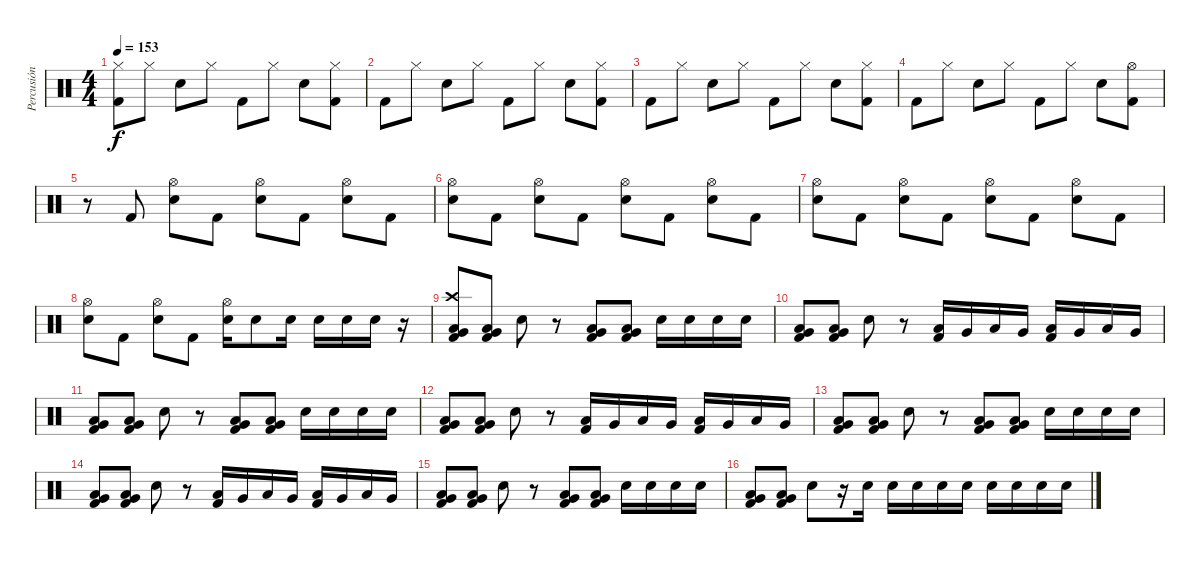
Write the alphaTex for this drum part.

\track ("Percusión" "Percusión") {instrument percussion}
\staff {score}
\articulation defaults
\ts (4 4)
\tempo 153
\clef neutral
\ks c
("Hi-Hat (closed)" "Kick (hit) 2").8{dy f} "Hi-Hat (closed)".8 "Electric Snare (hit)".8 "Hi-Hat (closed)".8 "Kick (hit) 2".8 "Hi-Hat (closed)".8 "Electric Snare (hit)".8 ("Hi-Hat (closed)" "Kick (hit) 2").8 |
"Kick (hit) 2".8 "Hi-Hat (closed)".8 "Electric Snare (hit)".8 "Hi-Hat (closed)".8 "Kick (hit) 2".8 "Hi-Hat (closed)".8 "Electric Snare (hit)".8 ("Hi-Hat (closed)" "Kick (hit) 2").8 |
"Kick (hit) 2".8 "Hi-Hat (closed)".8 "Electric Snare (hit)".8 "Hi-Hat (closed)".8 "Kick (hit) 2".8 "Hi-Hat (closed)".8 "Electric Snare (hit)".8 ("Hi-Hat (closed)" "Kick (hit) 2").8 |
"Kick (hit) 2".8 "Hi-Hat (closed)".8 "Electric Snare (hit)".8 "Hi-Hat (closed)".8 "Kick (hit) 2".8 "Hi-Hat (closed)".8 "Electric Snare (hit)".8 ("Hi-Hat (open)" "Kick (hit) 2").8 |
r.8 "Kick (hit) 2".8 ("Hi-Hat (open)" "Electric Snare (hit)").8 "Kick (hit) 2".8 ("Hi-Hat (open)" "Electric Snare (hit)").8 "Kick (hit) 2".8 ("Hi-Hat (open)" "Electric Snare (hit)").8 "Kick (hit) 2".8 |
("Hi-Hat (open)" "Electric Snare (hit)").8 "Kick (hit) 2".8 ("Hi-Hat (open)" "Electric Snare (hit)").8 "Kick (hit) 2".8 ("Hi-Hat (open)" "Electric Snare (hit)").8 "Kick (hit) 2".8 ("Hi-Hat (open)" "Electric Snare (hit)").8 "Kick (hit) 2".8 |
("Hi-Hat (open)" "Electric Snare (hit)").8 "Kick (hit) 2".8 ("Hi-Hat (open)" "Electric Snare (hit)").8 "Kick (hit) 2".8 ("Hi-Hat (open)" "Electric Snare (hit)").8 "Kick (hit) 2".8 ("Hi-Hat (open)" "Electric Snare (hit)").8 "Kick (hit) 2".8 |
("Hi-Hat (open)" "Electric Snare (hit)").8 "Kick (hit) 2".8 ("Hi-Hat (open)" "Electric Snare (hit)").8 "Kick (hit) 2".8 ("Hi-Hat (open)" "Electric Snare (hit)").16 "Electric Snare (hit)".8 "Electric Snare (hit)".16 "Electric Snare (hit)".16 "Electric Snare (hit)".16 "Electric Snare (hit)".16 r.16 |
("Crash high (hit)" "Kick (hit) 2" "Low Floor Tom (hit)" "Very Low Tom (hit)").8 ("Kick (hit) 2" "Low Floor Tom (hit)" "Very Low Tom (hit)").8 "Electric Snare (hit)".8 r.8 ("Kick (hit) 2" "Low Floor Tom (hit)" "Very Low Tom (hit)").8 ("Kick (hit) 2" "Low Floor Tom (hit)" "Very Low Tom (hit)").8 "Electric Snare (hit)".16 "Electric Snare (hit)".16 "Electric Snare (hit)".16 "Electric Snare (hit)".16 |
("Kick (hit) 2" "Low Floor Tom (hit)" "Very Low Tom (hit)").8 ("Kick (hit) 2" "Low Floor Tom (hit)" "Very Low Tom (hit)").8 "Electric Snare (hit)".8 r.8 ("Low Floor Tom (hit)" "Kick (hit) 2").16 "Very Low Tom (hit)".16 "Low Floor Tom (hit)".16 "Very Low Tom (hit)".16 ("Low Floor Tom (hit)" "Kick (hit) 2").16 "Very Low Tom (hit)".16 "Low Floor Tom (hit)".16 "Very Low Tom (hit)".16 |
("Kick (hit) 2" "Low Floor Tom (hit)" "Very Low Tom (hit)").8 ("Kick (hit) 2" "Low Floor Tom (hit)" "Very Low Tom (hit)").8 "Electric Snare (hit)".8 r.8 ("Kick (hit) 2" "Low Floor Tom (hit)" "Very Low Tom (hit)").8 ("Kick (hit) 2" "Low Floor Tom (hit)" "Very Low Tom (hit)").8 "Electric Snare (hit)".16 "Electric Snare (hit)".16 "Electric Snare (hit)".16 "Electric Snare (hit)".16 |
("Kick (hit) 2" "Low Floor Tom (hit)" "Very Low Tom (hit)").8 ("Kick (hit) 2" "Low Floor Tom (hit)" "Very Low Tom (hit)").8 "Electric Snare (hit)".8 r.8 ("Low Floor Tom (hit)" "Kick (hit) 2").16 "Very Low Tom (hit)".16 "Low Floor Tom (hit)".16 "Very Low Tom (hit)".16 ("Low Floor Tom (hit)" "Kick (hit) 2").16 "Very Low Tom (hit)".16 "Low Floor Tom (hit)".16 "Very Low Tom (hit)".16 |
("Kick (hit) 2" "Low Floor Tom (hit)" "Very Low Tom (hit)").8 ("Kick (hit) 2" "Low Floor Tom (hit)" "Very Low Tom (hit)").8 "Electric Snare (hit)".8 r.8 ("Kick (hit) 2" "Low Floor Tom (hit)" "Very Low Tom (hit)").8 ("Kick (hit) 2" "Low Floor Tom (hit)" "Very Low Tom (hit)").8 "Electric Snare (hit)".16 "Electric Snare (hit)".16 "Electric Snare (hit)".16 "Electric Snare (hit)".16 |
("Kick (hit) 2" "Low Floor Tom (hit)" "Very Low Tom (hit)").8 ("Kick (hit) 2" "Low Floor Tom (hit)" "Very Low Tom (hit)").8 "Electric Snare (hit)".8 r.8 ("Low Floor Tom (hit)" "Kick (hit) 2").16 "Very Low Tom (hit)".16 "Low Floor Tom (hit)".16 "Very Low Tom (hit)".16 ("Low Floor Tom (hit)" "Kick (hit) 2").16 "Very Low Tom (hit)".16 "Low Floor Tom (hit)".16 "Very Low Tom (hit)".16 |
("Kick (hit) 2" "Low Floor Tom (hit)" "Very Low Tom (hit)").8 ("Kick (hit) 2" "Low Floor Tom (hit)" "Very Low Tom (hit)").8 "Electric Snare (hit)".8 r.8 ("Kick (hit) 2" "Low Floor Tom (hit)" "Very Low Tom (hit)").8 ("Kick (hit) 2" "Low Floor Tom (hit)" "Very Low Tom (hit)").8 "Electric Snare (hit)".16 "Electric Snare (hit)".16 "Electric Snare (hit)".16 "Electric Snare (hit)".16 |
("Kick (hit) 2" "Low Floor Tom (hit)" "Very Low Tom (hit)").8 ("Kick (hit) 2" "Low Floor Tom (hit)" "Very Low Tom (hit)").8 "Electric Snare (hit)".8 r.16 "Electric Snare (hit)".16 "Electric Snare (hit)".16 "Electric Snare (hit)".16 "Electric Snare (hit)".16 "Electric Snare (hit)".16 "Electric Snare (hit)".16 "Electric Snare (hit)".16 "Electric Snare (hit)".16 "Electric Snare (hit)".16
